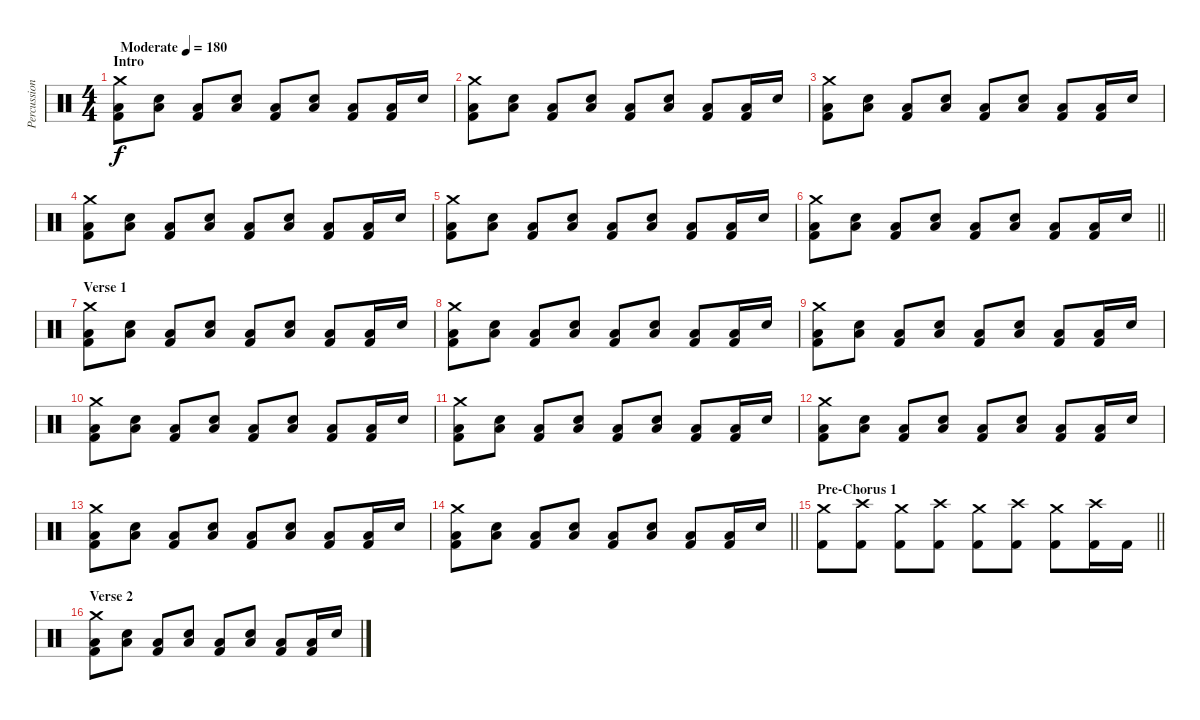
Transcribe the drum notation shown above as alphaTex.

\track ("Percussion" "Percussion") {instrument percussion}
\staff {score}
\articulation defaults
\ts (4 4)
\section ("" "Intro")
\tempo (180 "Moderate")
\clef neutral
\ks c
("Low Floor Tom (hit)" "Kick (hit) 2" "Crash medium (hit)").8{dy f} ("Low Floor Tom (hit)" "Snare (hit) 2").8 ("Low Floor Tom (hit)" "Kick (hit) 2").8 ("Low Floor Tom (hit)" "Snare (hit) 2").8 ("Low Floor Tom (hit)" "Kick (hit) 2").8 ("Low Floor Tom (hit)" "Snare (hit) 2").8 ("Low Floor Tom (hit)" "Kick (hit) 2").8 ("Low Floor Tom (hit)" "Kick (hit) 2").16 "Snare (hit) 2".16 |
("Low Floor Tom (hit)" "Kick (hit) 2" "Crash medium (hit)").8 ("Low Floor Tom (hit)" "Snare (hit) 2").8 ("Low Floor Tom (hit)" "Kick (hit) 2").8 ("Low Floor Tom (hit)" "Snare (hit) 2").8 ("Low Floor Tom (hit)" "Kick (hit) 2").8 ("Low Floor Tom (hit)" "Snare (hit) 2").8 ("Low Floor Tom (hit)" "Kick (hit) 2").8 ("Low Floor Tom (hit)" "Kick (hit) 2").16 "Snare (hit) 2".16 |
("Low Floor Tom (hit)" "Kick (hit) 2" "Crash medium (hit)").8 ("Low Floor Tom (hit)" "Snare (hit) 2").8 ("Low Floor Tom (hit)" "Kick (hit) 2").8 ("Low Floor Tom (hit)" "Snare (hit) 2").8 ("Low Floor Tom (hit)" "Kick (hit) 2").8 ("Low Floor Tom (hit)" "Snare (hit) 2").8 ("Low Floor Tom (hit)" "Kick (hit) 2").8 ("Low Floor Tom (hit)" "Kick (hit) 2").16 "Snare (hit) 2".16 |
("Low Floor Tom (hit)" "Kick (hit) 2" "Crash medium (hit)").8 ("Low Floor Tom (hit)" "Snare (hit) 2").8 ("Low Floor Tom (hit)" "Kick (hit) 2").8 ("Low Floor Tom (hit)" "Snare (hit) 2").8 ("Low Floor Tom (hit)" "Kick (hit) 2").8 ("Low Floor Tom (hit)" "Snare (hit) 2").8 ("Low Floor Tom (hit)" "Kick (hit) 2").8 ("Low Floor Tom (hit)" "Kick (hit) 2").16 "Snare (hit) 2".16 |
("Low Floor Tom (hit)" "Kick (hit) 2" "Crash medium (hit)").8 ("Low Floor Tom (hit)" "Snare (hit) 2").8 ("Low Floor Tom (hit)" "Kick (hit) 2").8 ("Low Floor Tom (hit)" "Snare (hit) 2").8 ("Low Floor Tom (hit)" "Kick (hit) 2").8 ("Low Floor Tom (hit)" "Snare (hit) 2").8 ("Low Floor Tom (hit)" "Kick (hit) 2").8 ("Low Floor Tom (hit)" "Kick (hit) 2").16 "Snare (hit) 2".16 |
\barLineRight lightlight
("Low Floor Tom (hit)" "Kick (hit) 2" "Crash medium (hit)").8 ("Low Floor Tom (hit)" "Snare (hit) 2").8 ("Low Floor Tom (hit)" "Kick (hit) 2").8 ("Low Floor Tom (hit)" "Snare (hit) 2").8 ("Low Floor Tom (hit)" "Kick (hit) 2").8 ("Low Floor Tom (hit)" "Snare (hit) 2").8 ("Low Floor Tom (hit)" "Kick (hit) 2").8 ("Low Floor Tom (hit)" "Kick (hit) 2").16 "Snare (hit) 2".16 |
\section ("" "Verse 1")
("Low Floor Tom (hit)" "Kick (hit) 2" "Crash medium (hit)").8 ("Low Floor Tom (hit)" "Snare (hit) 2").8 ("Low Floor Tom (hit)" "Kick (hit) 2").8 ("Low Floor Tom (hit)" "Snare (hit) 2").8 ("Low Floor Tom (hit)" "Kick (hit) 2").8 ("Low Floor Tom (hit)" "Snare (hit) 2").8 ("Low Floor Tom (hit)" "Kick (hit) 2").8 ("Low Floor Tom (hit)" "Kick (hit) 2").16 "Snare (hit) 2".16 |
("Low Floor Tom (hit)" "Kick (hit) 2" "Crash medium (hit)").8 ("Low Floor Tom (hit)" "Snare (hit) 2").8 ("Low Floor Tom (hit)" "Kick (hit) 2").8 ("Low Floor Tom (hit)" "Snare (hit) 2").8 ("Low Floor Tom (hit)" "Kick (hit) 2").8 ("Low Floor Tom (hit)" "Snare (hit) 2").8 ("Low Floor Tom (hit)" "Kick (hit) 2").8 ("Low Floor Tom (hit)" "Kick (hit) 2").16 "Snare (hit) 2".16 |
("Low Floor Tom (hit)" "Kick (hit) 2" "Crash medium (hit)").8 ("Low Floor Tom (hit)" "Snare (hit) 2").8 ("Low Floor Tom (hit)" "Kick (hit) 2").8 ("Low Floor Tom (hit)" "Snare (hit) 2").8 ("Low Floor Tom (hit)" "Kick (hit) 2").8 ("Low Floor Tom (hit)" "Snare (hit) 2").8 ("Low Floor Tom (hit)" "Kick (hit) 2").8 ("Low Floor Tom (hit)" "Kick (hit) 2").16 "Snare (hit) 2".16 |
("Low Floor Tom (hit)" "Kick (hit) 2" "Crash medium (hit)").8 ("Low Floor Tom (hit)" "Snare (hit) 2").8 ("Low Floor Tom (hit)" "Kick (hit) 2").8 ("Low Floor Tom (hit)" "Snare (hit) 2").8 ("Low Floor Tom (hit)" "Kick (hit) 2").8 ("Low Floor Tom (hit)" "Snare (hit) 2").8 ("Low Floor Tom (hit)" "Kick (hit) 2").8 ("Low Floor Tom (hit)" "Kick (hit) 2").16 "Snare (hit) 2".16 |
("Low Floor Tom (hit)" "Kick (hit) 2" "Crash medium (hit)").8 ("Low Floor Tom (hit)" "Snare (hit) 2").8 ("Low Floor Tom (hit)" "Kick (hit) 2").8 ("Low Floor Tom (hit)" "Snare (hit) 2").8 ("Low Floor Tom (hit)" "Kick (hit) 2").8 ("Low Floor Tom (hit)" "Snare (hit) 2").8 ("Low Floor Tom (hit)" "Kick (hit) 2").8 ("Low Floor Tom (hit)" "Kick (hit) 2").16 "Snare (hit) 2".16 |
("Low Floor Tom (hit)" "Kick (hit) 2" "Crash medium (hit)").8 ("Low Floor Tom (hit)" "Snare (hit) 2").8 ("Low Floor Tom (hit)" "Kick (hit) 2").8 ("Low Floor Tom (hit)" "Snare (hit) 2").8 ("Low Floor Tom (hit)" "Kick (hit) 2").8 ("Low Floor Tom (hit)" "Snare (hit) 2").8 ("Low Floor Tom (hit)" "Kick (hit) 2").8 ("Low Floor Tom (hit)" "Kick (hit) 2").16 "Snare (hit) 2".16 |
("Low Floor Tom (hit)" "Kick (hit) 2" "Crash medium (hit)").8 ("Low Floor Tom (hit)" "Snare (hit) 2").8 ("Low Floor Tom (hit)" "Kick (hit) 2").8 ("Low Floor Tom (hit)" "Snare (hit) 2").8 ("Low Floor Tom (hit)" "Kick (hit) 2").8 ("Low Floor Tom (hit)" "Snare (hit) 2").8 ("Low Floor Tom (hit)" "Kick (hit) 2").8 ("Low Floor Tom (hit)" "Kick (hit) 2").16 "Snare (hit) 2".16 |
\barLineRight lightlight
("Low Floor Tom (hit)" "Kick (hit) 2" "Crash medium (hit)").8 ("Low Floor Tom (hit)" "Snare (hit) 2").8 ("Low Floor Tom (hit)" "Kick (hit) 2").8 ("Low Floor Tom (hit)" "Snare (hit) 2").8 ("Low Floor Tom (hit)" "Kick (hit) 2").8 ("Low Floor Tom (hit)" "Snare (hit) 2").8 ("Low Floor Tom (hit)" "Kick (hit) 2").8 ("Low Floor Tom (hit)" "Kick (hit) 2").16 "Snare (hit) 2".16 |
\section ("" "Pre-Chorus 1")
\barLineRight lightlight
("Kick (hit) 2" "Crash medium (hit)").8 ("Kick (hit) 2" "Crash high (hit)").8 ("Kick (hit) 2" "Crash medium (hit)").8 ("Kick (hit) 2" "Crash high (hit)").8 ("Kick (hit) 2" "Crash medium (hit)").8 ("Kick (hit) 2" "Crash high (hit)").8 ("Kick (hit) 2" "Crash medium (hit)").8 ("Kick (hit) 2" "Crash high (hit)").16 "Kick (hit) 2".16 |
\section ("" "Verse 2")
("Low Floor Tom (hit)" "Kick (hit) 2" "Crash medium (hit)").8 ("Low Floor Tom (hit)" "Snare (hit) 2").8 ("Low Floor Tom (hit)" "Kick (hit) 2").8 ("Low Floor Tom (hit)" "Snare (hit) 2").8 ("Low Floor Tom (hit)" "Kick (hit) 2").8 ("Low Floor Tom (hit)" "Snare (hit) 2").8 ("Low Floor Tom (hit)" "Kick (hit) 2").8 ("Low Floor Tom (hit)" "Kick (hit) 2").16 "Snare (hit) 2".16
